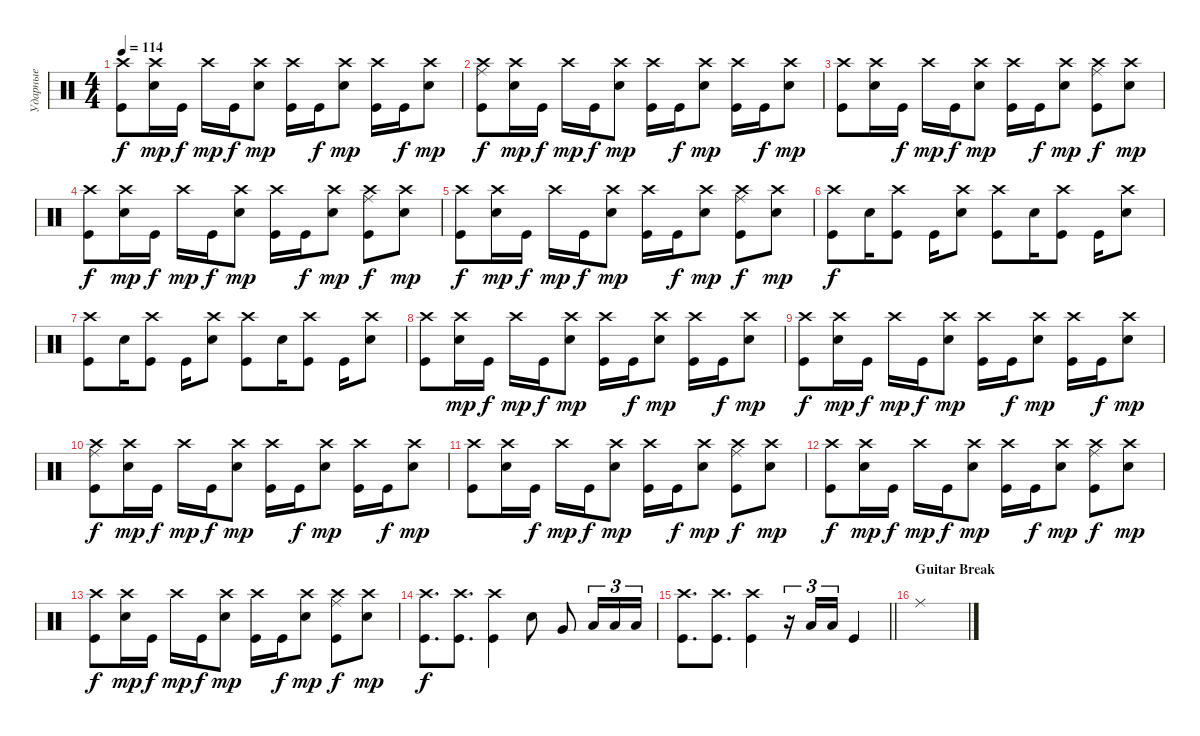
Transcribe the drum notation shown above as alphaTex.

\track ("Ударные" "Ударные") {instrument percussion}
\staff {score}
\articulation defaults
\ts (4 4)
\tempo 114
\clef neutral
\ks aminor
("Crash high (hit)" "Kick (hit)").8{dy f} ("Crash high (hit)" "Snare (hit) 2").16{dy mp} "Kick (hit)".16{dy f} "Crash high (hit)".16{dy mp} "Kick (hit)".16{dy f} ("Crash high (hit)" "Snare (hit) 2").8{dy mp} ("Kick (hit)" "Crash high (hit)").16 "Kick (hit)".16{dy f} ("Crash high (hit)" "Snare (hit) 2").8{dy mp} ("Crash high (hit)" "Kick (hit)").16 "Kick (hit)".16{dy f} ("Crash high (hit)" "Snare (hit) 2").8{dy mp} |
("Crash high (hit)" "Ride (middle)" "Kick (hit)").8{dy f} ("Crash high (hit)" "Snare (hit) 2").16{dy mp} "Kick (hit)".16{dy f} "Crash high (hit)".16{dy mp} "Kick (hit)".16{dy f} ("Crash high (hit)" "Snare (hit) 2").8{dy mp} ("Kick (hit)" "Crash high (hit)").16 "Kick (hit)".16{dy f} ("Crash high (hit)" "Snare (hit) 2").8{dy mp} ("Kick (hit)" "Crash high (hit)").16 "Kick (hit)".16{dy f} ("Crash high (hit)" "Snare (hit) 2").8{dy mp} |
("Crash high (hit)" "Kick (hit)").8 ("Crash high (hit)" "Snare (hit) 2").16 "Kick (hit)".16{dy f} "Crash high (hit)".16{dy mp} "Kick (hit)".16{dy f} ("Crash high (hit)" "Snare (hit) 2").8{dy mp} ("Kick (hit)" "Crash high (hit)").16 "Kick (hit)".16{dy f} ("Crash high (hit)" "Snare (hit) 2").8{dy mp} ("Ride (middle)" "Crash high (hit)" "Kick (hit)").8{dy f} ("Crash high (hit)" "Snare (hit) 2").8{dy mp} |
("Crash high (hit)" "Kick (hit)").8{dy f} ("Crash high (hit)" "Snare (hit) 2").16{dy mp} "Kick (hit)".16{dy f} "Crash high (hit)".16{dy mp} "Kick (hit)".16{dy f} ("Crash high (hit)" "Snare (hit) 2").8{dy mp} ("Kick (hit)" "Crash high (hit)").16 "Kick (hit)".16{dy f} ("Crash high (hit)" "Snare (hit) 2").8{dy mp} ("Ride (middle)" "Crash high (hit)" "Kick (hit)").8{dy f} ("Crash high (hit)" "Snare (hit) 2").8{dy mp} |
("Crash high (hit)" "Kick (hit)").8{dy f} ("Crash high (hit)" "Snare (hit) 2").16{dy mp} "Kick (hit)".16{dy f} "Crash high (hit)".16{dy mp} "Kick (hit)".16{dy f} ("Crash high (hit)" "Snare (hit) 2").8{dy mp} ("Kick (hit)" "Crash high (hit)").16 "Kick (hit)".16{dy f} ("Crash high (hit)" "Snare (hit) 2").8{dy mp} ("Ride (middle)" "Crash high (hit)" "Kick (hit)").8{dy f} ("Crash high (hit)" "Snare (hit) 2").8{dy mp} |
("Crash high (hit)" "Kick (hit)").8{dy f} "Snare (hit) 2".16 ("Crash high (hit)" "Kick (hit)").8 "Kick (hit)".16 ("Crash high (hit)" "Snare (hit) 2").8 ("Crash high (hit)" "Kick (hit)").8 "Snare (hit) 2".16 ("Crash high (hit)" "Kick (hit)").8 "Kick (hit)".16 ("Crash high (hit)" "Snare (hit) 2").8 |
("Crash high (hit)" "Kick (hit)").8 "Snare (hit) 2".16 ("Crash high (hit)" "Kick (hit)").8 "Kick (hit)".16 ("Crash high (hit)" "Snare (hit) 2").8 ("Crash high (hit)" "Kick (hit)").8 "Snare (hit) 2".16 ("Crash high (hit)" "Kick (hit)").8 "Kick (hit)".16 ("Crash high (hit)" "Snare (hit) 2").8 |
("Crash high (hit)" "Kick (hit)").8 ("Crash high (hit)" "Snare (hit) 2").16{dy mp} "Kick (hit)".16{dy f} "Crash high (hit)".16{dy mp} "Kick (hit)".16{dy f} ("Crash high (hit)" "Snare (hit) 2").8{dy mp} ("Kick (hit)" "Crash high (hit)").16 "Kick (hit)".16{dy f} ("Crash high (hit)" "Snare (hit) 2").8{dy mp} ("Kick (hit)" "Crash high (hit)").16 "Kick (hit)".16{dy f} ("Crash high (hit)" "Snare (hit) 2").8{dy mp} |
("Crash high (hit)" "Kick (hit)").8{dy f} ("Crash high (hit)" "Snare (hit) 2").16{dy mp} "Kick (hit)".16{dy f} "Crash high (hit)".16{dy mp} "Kick (hit)".16{dy f} ("Crash high (hit)" "Snare (hit) 2").8{dy mp} ("Kick (hit)" "Crash high (hit)").16 "Kick (hit)".16{dy f} ("Crash high (hit)" "Snare (hit) 2").8{dy mp} ("Crash high (hit)" "Kick (hit)").16 "Kick (hit)".16{dy f} ("Crash high (hit)" "Snare (hit) 2").8{dy mp} |
("Crash high (hit)" "Ride (middle)" "Kick (hit)").8{dy f} ("Crash high (hit)" "Snare (hit) 2").16{dy mp} "Kick (hit)".16{dy f} "Crash high (hit)".16{dy mp} "Kick (hit)".16{dy f} ("Crash high (hit)" "Snare (hit) 2").8{dy mp} ("Kick (hit)" "Crash high (hit)").16 "Kick (hit)".16{dy f} ("Crash high (hit)" "Snare (hit) 2").8{dy mp} ("Kick (hit)" "Crash high (hit)").16 "Kick (hit)".16{dy f} ("Crash high (hit)" "Snare (hit) 2").8{dy mp} |
("Crash high (hit)" "Kick (hit)").8 ("Crash high (hit)" "Snare (hit) 2").16 "Kick (hit)".16{dy f} "Crash high (hit)".16{dy mp} "Kick (hit)".16{dy f} ("Crash high (hit)" "Snare (hit) 2").8{dy mp} ("Kick (hit)" "Crash high (hit)").16 "Kick (hit)".16{dy f} ("Crash high (hit)" "Snare (hit) 2").8{dy mp} ("Ride (middle)" "Crash high (hit)" "Kick (hit)").8{dy f} ("Crash high (hit)" "Snare (hit) 2").8{dy mp} |
("Crash high (hit)" "Kick (hit)").8{dy f} ("Crash high (hit)" "Snare (hit) 2").16{dy mp} "Kick (hit)".16{dy f} "Crash high (hit)".16{dy mp} "Kick (hit)".16{dy f} ("Crash high (hit)" "Snare (hit) 2").8{dy mp} ("Kick (hit)" "Crash high (hit)").16 "Kick (hit)".16{dy f} ("Crash high (hit)" "Snare (hit) 2").8{dy mp} ("Ride (middle)" "Crash high (hit)" "Kick (hit)").8{dy f} ("Crash high (hit)" "Snare (hit) 2").8{dy mp} |
("Crash high (hit)" "Kick (hit)").8{dy f} ("Crash high (hit)" "Snare (hit) 2").16{dy mp} "Kick (hit)".16{dy f} "Crash high (hit)".16{dy mp} "Kick (hit)".16{dy f} ("Crash high (hit)" "Snare (hit) 2").8{dy mp} ("Kick (hit)" "Crash high (hit)").16 "Kick (hit)".16{dy f} ("Crash high (hit)" "Snare (hit) 2").8{dy mp} ("Ride (middle)" "Crash high (hit)" "Kick (hit)").8{dy f} ("Crash high (hit)" "Snare (hit) 2").8{dy mp} |
("Crash high (hit)" "Kick (hit)").8{d dy f} ("Crash high (hit)" "Kick (hit)").8{d} ("Crash high (hit)" "Kick (hit)").4 "Snare (hit) 2".8 "Very Low Tom (hit)".8 "Low Floor Tom (hit)".16{tu (3 2)} "Low Floor Tom (hit)".16{tu (3 2)} "Low Floor Tom (hit)".16{tu (3 2)} |
\barLineRight lightlight
("Crash high (hit)" "Kick (hit)").8{d} ("Crash high (hit)" "Kick (hit)").8{d} ("Crash high (hit)" "Kick (hit)").4 r.16{tu (3 2)} "Low Floor Tom (hit)".16{tu (3 2)} "Low Floor Tom (hit)".16{tu (3 2)} "Kick (hit)".4 |
\section ("" "Guitar Break")
"Ride (middle)".1
